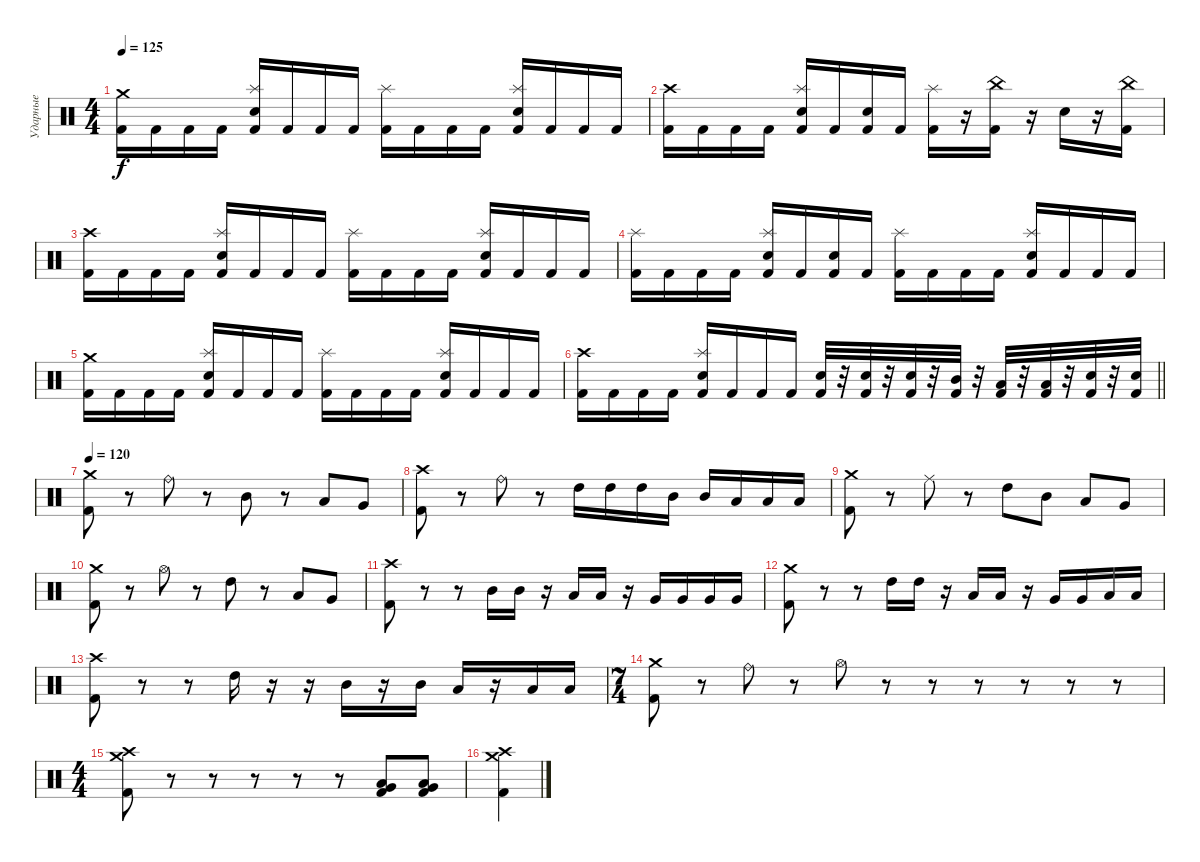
\track ("Ударные" "Ударные") {instrument percussion}
\staff {score}
\articulation defaults
\ts (4 4)
\tempo 125
\clef neutral
\ks c
("Crash medium (hit)" "Kick (hit) 2").16{dy f} "Kick (hit) 2".16 "Kick (hit) 2".16 "Kick (hit) 2".16 ("Splash (hit)" "Snare (hit) 2" "Kick (hit) 2").16 "Kick (hit) 2".16 "Kick (hit) 2".16 "Kick (hit) 2".16 ("Splash (hit)" "Kick (hit) 2").16 "Kick (hit) 2".16 "Kick (hit) 2".16 "Kick (hit) 2".16 ("Splash (hit)" "Snare (hit) 2" "Kick (hit) 2").16 "Kick (hit) 2".16 "Kick (hit) 2".16 "Kick (hit) 2".16 |
("Crash high (hit)" "Kick (hit) 2").16 "Kick (hit) 2".16 "Kick (hit) 2".16 "Kick (hit) 2".16 ("Splash (hit)" "Snare (hit) 2" "Kick (hit) 2").16 "Kick (hit) 2".16 ("Snare (hit) 2" "Kick (hit) 2").16 "Kick (hit) 2".16 ("Splash (hit)" "Kick (hit) 2").16 r.16 ("China (hit)" "Kick (hit) 2").16 r.16 "Snare (hit) 2".16 r.16 ("China (hit)" "Kick (hit) 2").16 |
("Crash high (hit)" "Kick (hit) 2").16 "Kick (hit) 2".16 "Kick (hit) 2".16 "Kick (hit) 2".16 ("Splash (hit)" "Snare (hit) 2" "Kick (hit) 2").16 "Kick (hit) 2".16 "Kick (hit) 2".16 "Kick (hit) 2".16 ("Splash (hit)" "Kick (hit) 2").16 "Kick (hit) 2".16 "Kick (hit) 2".16 "Kick (hit) 2".16 ("Splash (hit)" "Snare (hit) 2" "Kick (hit) 2").16 "Kick (hit) 2".16 "Kick (hit) 2".16 "Kick (hit) 2".16 |
("Splash (hit)" "Kick (hit) 2").16 "Kick (hit) 2".16 "Kick (hit) 2".16 "Kick (hit) 2".16 ("Splash (hit)" "Snare (hit) 2" "Kick (hit) 2").16 "Kick (hit) 2".16 ("Snare (hit) 2" "Kick (hit) 2").16 "Kick (hit) 2".16 ("Splash (hit)" "Kick (hit) 2").16 "Kick (hit) 2".16 "Kick (hit) 2".16 "Kick (hit) 2".16 ("Splash (hit)" "Snare (hit) 2" "Kick (hit) 2").16 "Kick (hit) 2".16 "Kick (hit) 2".16 "Kick (hit) 2".16 |
("Crash medium (hit)" "Kick (hit) 2").16 "Kick (hit) 2".16 "Kick (hit) 2".16 "Kick (hit) 2".16 ("Splash (hit)" "Snare (hit) 2" "Kick (hit) 2").16 "Kick (hit) 2".16 "Kick (hit) 2".16 "Kick (hit) 2".16 ("Splash (hit)" "Kick (hit) 2").16 "Kick (hit) 2".16 "Kick (hit) 2".16 "Kick (hit) 2".16 ("Splash (hit)" "Snare (hit) 2" "Kick (hit) 2").16 "Kick (hit) 2".16 "Kick (hit) 2".16 "Kick (hit) 2".16 |
\barLineRight lightlight
("Crash high (hit)" "Kick (hit) 2").16 "Kick (hit) 2".16 "Kick (hit) 2".16 "Kick (hit) 2".16 ("Splash (hit)" "Snare (hit) 2" "Kick (hit) 2").16 "Kick (hit) 2".16 "Kick (hit) 2".16 "Kick (hit) 2".16 ("Snare (hit) 2" "Kick (hit) 2").32 r.32 ("Snare (hit) 2" "Kick (hit) 2").32 r.32 ("Snare (hit) 2" "Kick (hit) 2").32 r.32 ("Mid Tom (hit)" "Kick (hit) 2").32 r.32 ("Low Tom (hit)" "Kick (hit) 2").32 r.32 ("Low Tom (hit)" "Kick (hit) 2").32 r.32 ("Snare (hit) 2" "Kick (hit) 2").32 r.32 ("Snare (hit) 2" "Kick (hit) 2").32 |
\tempo 120
("Crash medium (hit)" "Kick (hit) 2").8 r.8 "Ride (bell)".8 r.8 "Mid Tom (hit)".8 r.8 "Low Tom (hit)".8 "Very Low Tom (hit)".8 |
("Crash high (hit)" "Kick (hit) 2").8 r.8 "Ride (bell)".8 r.8 "High Tom (hit)".16 "High Tom (hit)".16 "High Tom (hit)".16 "Mid Tom (hit)".16 "Mid Tom (hit)".16 "Low Tom (hit)".16 "Low Tom (hit)".16 "Low Tom (hit)".16 |
("Crash medium (hit)" "Kick (hit) 2").8 r.8 "Ride (middle)".8 r.8 "High Tom (hit)".8 "Mid Tom (hit)".8 "Low Tom (hit)".8 "Very Low Tom (hit)".8 |
("Crash medium (hit)" "Kick (hit) 2").8 r.8 "Hi-Hat (open)".8 r.8 "High Tom (hit)".8 r.8 "Low Tom (hit)".8 "Very Low Tom (hit)".8 |
("Crash high (hit)" "Kick (hit) 2").8 r.8 r.8 "Mid Tom (hit)".16 "Mid Tom (hit)".16 r.16 "Low Tom (hit)".16 "Low Tom (hit)".16 r.16 "Very Low Tom (hit)".16 "Very Low Tom (hit)".16 "Very Low Tom (hit)".16 "Very Low Tom (hit)".16 |
("Crash medium (hit)" "Kick (hit) 2").8 r.8 r.8 "High Tom (hit)".16 "High Tom (hit)".16 r.16 "Low Tom (hit)".16 "Low Tom (hit)".16 r.16 "Very Low Tom (hit)".16 "Very Low Tom (hit)".16 "Low Floor Tom (hit)".16 "Low Floor Tom (hit)".16 |
("Crash high (hit)" "Kick (hit) 2").8 r.8 r.8 "High Tom (hit)".16 r.16 r.16 "Mid Tom (hit)".16 r.16 "Mid Tom (hit)".16 "Low Tom (hit)".16 r.16 "Low Tom (hit)".16 "Low Tom (hit)".16 |
\ts (7 4)
("Crash medium (hit)" "Kick (hit) 2").8 r.8 "Ride (bell)".8 r.8 "Hi-Hat (open)".8 r.8 r.8 r.8 r.8 r.8 r.8 |
\ts (4 4)
("Crash medium (hit)" "Crash high (hit)" "Kick (hit) 2").8 r.8 r.8 r.8 r.8 r.8 ("Low Tom (hit)" "Very Low Tom (hit)" "Kick (hit) 2").8 ("Low Tom (hit)" "Very Low Tom (hit)" "Kick (hit) 2").8 |
("Crash medium (hit)" "Crash high (hit)" "Kick (hit) 2").4
